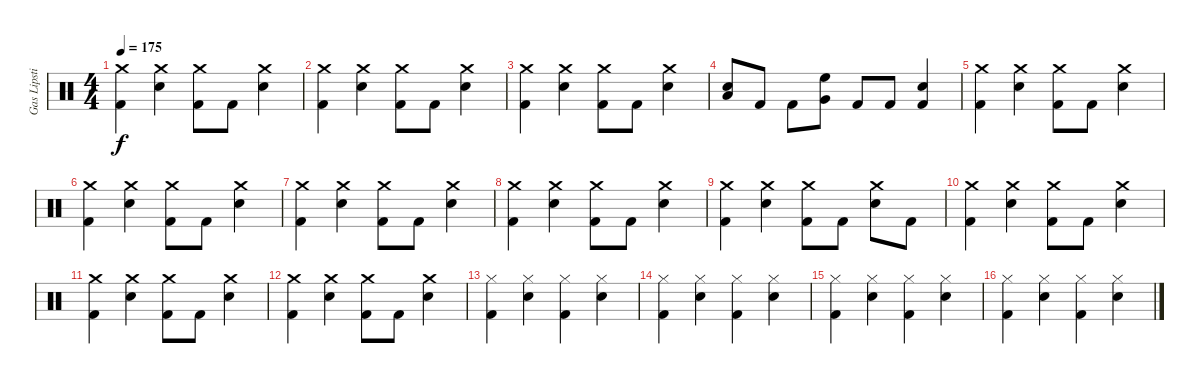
\track ("Gas Lipstick" "Gas Lipsti") {instrument percussion}
\staff {score}
\articulation defaults
\ts (4 4)
\tempo 175
\clef neutral
\ks c
("Kick (hit) 2" "Crash medium (hit)").4{dy f} ("Snare (hit) 2" "Crash medium (hit)").4 ("Kick (hit) 2" "Crash medium (hit)").8 "Kick (hit) 2".8 ("Snare (hit) 2" "Crash medium (hit)").4 |
("Kick (hit) 2" "Crash medium (hit)").4 ("Snare (hit) 2" "Crash medium (hit)").4 ("Kick (hit) 2" "Crash medium (hit)").8 "Kick (hit) 2".8 ("Snare (hit) 2" "Crash medium (hit)").4 |
("Kick (hit) 2" "Crash medium (hit)").4 ("Snare (hit) 2" "Crash medium (hit)").4 ("Kick (hit) 2" "Crash medium (hit)").8 "Kick (hit) 2".8 ("Snare (hit) 2" "Crash medium (hit)").4 |
("Low Floor Tom (hit)" "Snare (hit) 2").8 "Kick (hit) 2".8 "Kick (hit) 2".8 ("High Floor Tom (hit)" "Very Low Tom (hit)").8 "Kick (hit) 2".8 "Kick (hit) 2".8 ("Kick (hit) 2" "Snare (hit) 2").4 |
("Kick (hit) 2" "Crash medium (hit)").4 ("Snare (hit) 2" "Crash medium (hit)").4 ("Kick (hit) 2" "Crash medium (hit)").8 "Kick (hit) 2".8 ("Snare (hit) 2" "Crash medium (hit)").4 |
("Kick (hit) 2" "Crash medium (hit)").4 ("Snare (hit) 2" "Crash medium (hit)").4 ("Kick (hit) 2" "Crash medium (hit)").8 "Kick (hit) 2".8 ("Snare (hit) 2" "Crash medium (hit)").4 |
("Kick (hit) 2" "Crash medium (hit)").4 ("Snare (hit) 2" "Crash medium (hit)").4 ("Kick (hit) 2" "Crash medium (hit)").8 "Kick (hit) 2".8 ("Snare (hit) 2" "Crash medium (hit)").4 |
("Kick (hit) 2" "Crash medium (hit)").4 ("Snare (hit) 2" "Crash medium (hit)").4 ("Kick (hit) 2" "Crash medium (hit)").8 "Kick (hit) 2".8 ("Snare (hit) 2" "Crash medium (hit)").4 |
("Kick (hit) 2" "Crash medium (hit)").4 ("Snare (hit) 2" "Crash medium (hit)").4 ("Kick (hit) 2" "Crash medium (hit)").8 "Kick (hit) 2".8 ("Snare (hit) 2" "Crash medium (hit)").8 "Kick (hit) 2".8 |
("Kick (hit) 2" "Crash medium (hit)").4 ("Snare (hit) 2" "Crash medium (hit)").4 ("Kick (hit) 2" "Crash medium (hit)").8 "Kick (hit) 2".8 ("Snare (hit) 2" "Crash medium (hit)").4 |
("Kick (hit) 2" "Crash medium (hit)").4 ("Snare (hit) 2" "Crash medium (hit)").4 ("Kick (hit) 2" "Crash medium (hit)").8 "Kick (hit) 2".8 ("Snare (hit) 2" "Crash medium (hit)").4 |
("Kick (hit) 2" "Crash medium (hit)").4 ("Snare (hit) 2" "Crash medium (hit)").4 ("Kick (hit) 2" "Crash medium (hit)").8 "Kick (hit) 2".8 ("Snare (hit) 2" "Crash medium (hit)").4 |
("Kick (hit) 2" "Hi-Hat (closed)").4 ("Snare (hit) 2" "Hi-Hat (closed)").4 ("Kick (hit) 2" "Hi-Hat (closed)").4 ("Snare (hit) 2" "Hi-Hat (closed)").4 |
("Kick (hit) 2" "Hi-Hat (closed)").4 ("Snare (hit) 2" "Hi-Hat (closed)").4 ("Kick (hit) 2" "Hi-Hat (closed)").4 ("Snare (hit) 2" "Hi-Hat (closed)").4 |
("Kick (hit) 2" "Hi-Hat (closed)").4 ("Snare (hit) 2" "Hi-Hat (closed)").4 ("Kick (hit) 2" "Hi-Hat (closed)").4 ("Snare (hit) 2" "Hi-Hat (closed)").4 |
("Kick (hit) 2" "Hi-Hat (closed)").4 ("Snare (hit) 2" "Hi-Hat (closed)").4 ("Kick (hit) 2" "Hi-Hat (closed)").4 ("Snare (hit) 2" "Hi-Hat (closed)").4
